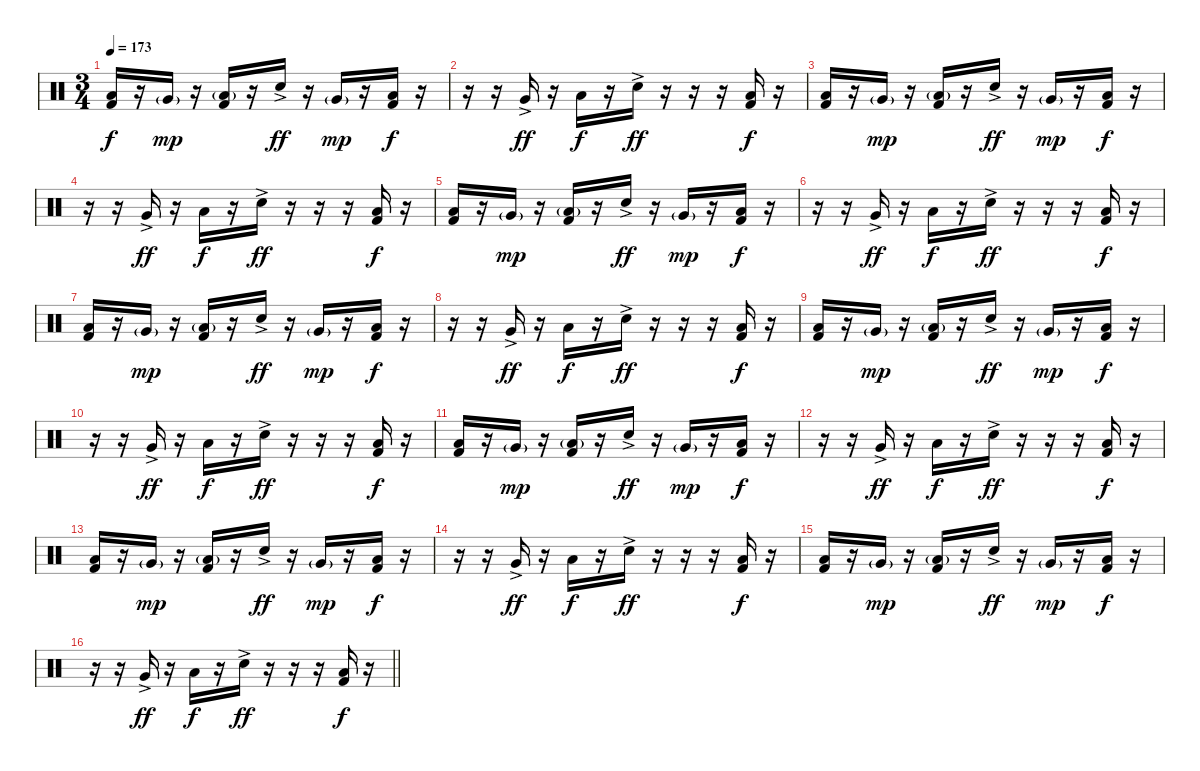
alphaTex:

\track (" " " ") {instrument percussion}
\staff {score}
\articulation defaults
\ts (3 4)
\tempo 173
\clef neutral
\ks c
("Low Floor Tom (hit)" "Kick (hit) 2").16{dy f} r.16 "Very Low Tom (hit)"{g}.16{dy mp} r.16 ("Low Floor Tom (hit)"{g} "Kick (hit) 2").16 r.16 "Electric Snare (hit)"{ac}.16{dy ff} r.16 "Very Low Tom (hit)"{g}.16{dy mp} r.16 ("Low Floor Tom (hit)" "Kick (hit) 2").16{dy f} r.16 |
r.16 r.16 "Very Low Tom (hit)"{ac}.16{dy ff} r.16 "Low Floor Tom (hit)".16{dy f} r.16 "Electric Snare (hit)"{ac}.16{dy ff} r.16 r.16 r.16 ("Low Floor Tom (hit)" "Kick (hit) 2").16{dy f} r.16 |
("Low Floor Tom (hit)" "Kick (hit) 2").16 r.16 "Very Low Tom (hit)"{g}.16{dy mp} r.16 ("Low Floor Tom (hit)"{g} "Kick (hit) 2").16 r.16 "Electric Snare (hit)"{ac}.16{dy ff} r.16 "Very Low Tom (hit)"{g}.16{dy mp} r.16 ("Low Floor Tom (hit)" "Kick (hit) 2").16{dy f} r.16 |
r.16 r.16 "Very Low Tom (hit)"{ac}.16{dy ff} r.16 "Low Floor Tom (hit)".16{dy f} r.16 "Electric Snare (hit)"{ac}.16{dy ff} r.16 r.16 r.16 ("Low Floor Tom (hit)" "Kick (hit) 2").16{dy f} r.16 |
("Low Floor Tom (hit)" "Kick (hit) 2").16 r.16 "Very Low Tom (hit)"{g}.16{dy mp} r.16 ("Low Floor Tom (hit)"{g} "Kick (hit) 2").16 r.16 "Electric Snare (hit)"{ac}.16{dy ff} r.16 "Very Low Tom (hit)"{g}.16{dy mp} r.16 ("Low Floor Tom (hit)" "Kick (hit) 2").16{dy f} r.16 |
r.16 r.16 "Very Low Tom (hit)"{ac}.16{dy ff} r.16 "Low Floor Tom (hit)".16{dy f} r.16 "Electric Snare (hit)"{ac}.16{dy ff} r.16 r.16 r.16 ("Low Floor Tom (hit)" "Kick (hit) 2").16{dy f} r.16 |
("Low Floor Tom (hit)" "Kick (hit) 2").16 r.16 "Very Low Tom (hit)"{g}.16{dy mp} r.16 ("Low Floor Tom (hit)"{g} "Kick (hit) 2").16 r.16 "Electric Snare (hit)"{ac}.16{dy ff} r.16 "Very Low Tom (hit)"{g}.16{dy mp} r.16 ("Low Floor Tom (hit)" "Kick (hit) 2").16{dy f} r.16 |
r.16 r.16 "Very Low Tom (hit)"{ac}.16{dy ff} r.16 "Low Floor Tom (hit)".16{dy f} r.16 "Electric Snare (hit)"{ac}.16{dy ff} r.16 r.16 r.16 ("Low Floor Tom (hit)" "Kick (hit) 2").16{dy f} r.16 |
("Low Floor Tom (hit)" "Kick (hit) 2").16 r.16 "Very Low Tom (hit)"{g}.16{dy mp} r.16 ("Low Floor Tom (hit)"{g} "Kick (hit) 2").16 r.16 "Electric Snare (hit)"{ac}.16{dy ff} r.16 "Very Low Tom (hit)"{g}.16{dy mp} r.16 ("Low Floor Tom (hit)" "Kick (hit) 2").16{dy f} r.16 |
r.16 r.16 "Very Low Tom (hit)"{ac}.16{dy ff} r.16 "Low Floor Tom (hit)".16{dy f} r.16 "Electric Snare (hit)"{ac}.16{dy ff} r.16 r.16 r.16 ("Low Floor Tom (hit)" "Kick (hit) 2").16{dy f} r.16 |
("Low Floor Tom (hit)" "Kick (hit) 2").16 r.16 "Very Low Tom (hit)"{g}.16{dy mp} r.16 ("Low Floor Tom (hit)"{g} "Kick (hit) 2").16 r.16 "Electric Snare (hit)"{ac}.16{dy ff} r.16 "Very Low Tom (hit)"{g}.16{dy mp} r.16 ("Low Floor Tom (hit)" "Kick (hit) 2").16{dy f} r.16 |
r.16 r.16 "Very Low Tom (hit)"{ac}.16{dy ff} r.16 "Low Floor Tom (hit)".16{dy f} r.16 "Electric Snare (hit)"{ac}.16{dy ff} r.16 r.16 r.16 ("Low Floor Tom (hit)" "Kick (hit) 2").16{dy f} r.16 |
("Low Floor Tom (hit)" "Kick (hit) 2").16 r.16 "Very Low Tom (hit)"{g}.16{dy mp} r.16 ("Low Floor Tom (hit)"{g} "Kick (hit) 2").16 r.16 "Electric Snare (hit)"{ac}.16{dy ff} r.16 "Very Low Tom (hit)"{g}.16{dy mp} r.16 ("Low Floor Tom (hit)" "Kick (hit) 2").16{dy f} r.16 |
r.16 r.16 "Very Low Tom (hit)"{ac}.16{dy ff} r.16 "Low Floor Tom (hit)".16{dy f} r.16 "Electric Snare (hit)"{ac}.16{dy ff} r.16 r.16 r.16 ("Low Floor Tom (hit)" "Kick (hit) 2").16{dy f} r.16 |
("Low Floor Tom (hit)" "Kick (hit) 2").16 r.16 "Very Low Tom (hit)"{g}.16{dy mp} r.16 ("Low Floor Tom (hit)"{g} "Kick (hit) 2").16 r.16 "Electric Snare (hit)"{ac}.16{dy ff} r.16 "Very Low Tom (hit)"{g}.16{dy mp} r.16 ("Low Floor Tom (hit)" "Kick (hit) 2").16{dy f} r.16 |
\barLineRight lightlight
r.16 r.16 "Very Low Tom (hit)"{ac}.16{dy ff} r.16 "Low Floor Tom (hit)".16{dy f} r.16 "Electric Snare (hit)"{ac}.16{dy ff} r.16 r.16 r.16 ("Low Floor Tom (hit)" "Kick (hit) 2").16{dy f} r.16
